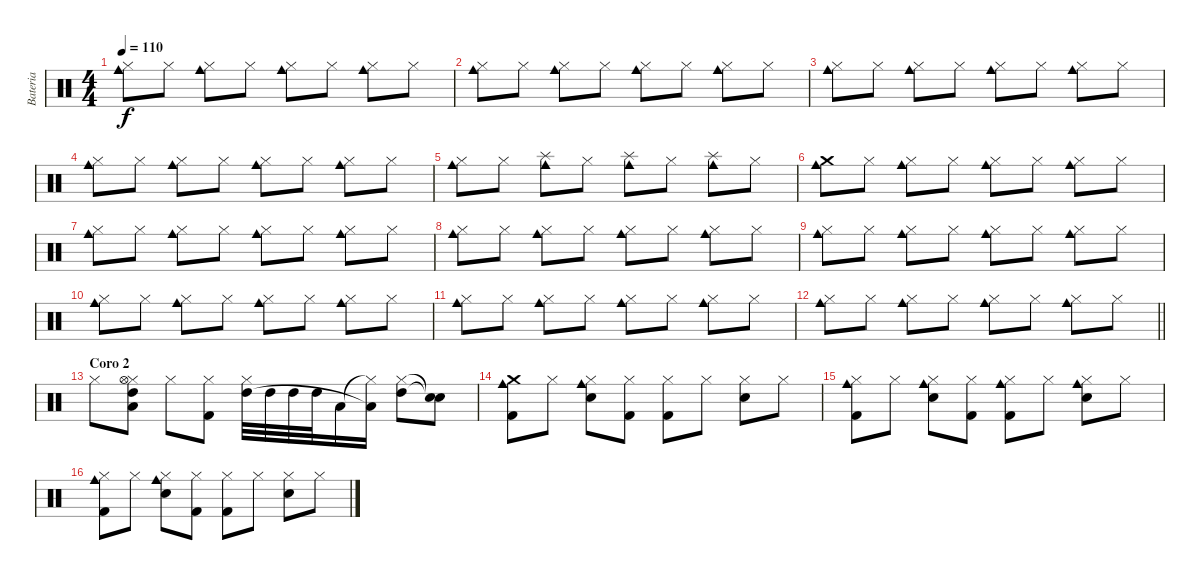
\track ("Bateria" "Bateria") {instrument percussion}
\staff {score}
\articulation defaults
\ts (4 4)
\tempo 110
\clef neutral
\ks c
("Hi-Hat (closed)" "Cowbell medium (hit)").8{dy f} "Hi-Hat (closed)".8 ("Hi-Hat (closed)" "Cowbell medium (hit)").8 "Hi-Hat (closed)".8 ("Hi-Hat (closed)" "Cowbell medium (hit)").8 "Hi-Hat (closed)".8 ("Hi-Hat (closed)" "Cowbell medium (hit)").8 "Hi-Hat (closed)".8 |
("Hi-Hat (closed)" "Cowbell medium (hit)").8 "Hi-Hat (closed)".8 ("Hi-Hat (closed)" "Cowbell medium (hit)").8 "Hi-Hat (closed)".8 ("Hi-Hat (closed)" "Cowbell medium (hit)").8 "Hi-Hat (closed)".8 ("Hi-Hat (closed)" "Cowbell medium (hit)").8 "Hi-Hat (closed)".8 |
("Hi-Hat (closed)" "Cowbell medium (hit)").8 "Hi-Hat (closed)".8 ("Hi-Hat (closed)" "Cowbell medium (hit)").8 "Hi-Hat (closed)".8 ("Hi-Hat (closed)" "Cowbell medium (hit)").8 "Hi-Hat (closed)".8 ("Hi-Hat (closed)" "Cowbell medium (hit)").8 "Hi-Hat (closed)".8 |
("Hi-Hat (closed)" "Cowbell medium (hit)").8 "Hi-Hat (closed)".8 ("Hi-Hat (closed)" "Cowbell medium (hit)").8 "Hi-Hat (closed)".8 ("Hi-Hat (closed)" "Cowbell medium (hit)").8 "Hi-Hat (closed)".8 ("Hi-Hat (closed)" "Cowbell medium (hit)").8 "Hi-Hat (closed)".8 |
("Hi-Hat (closed)" "Cowbell medium (hit)").8 "Hi-Hat (closed)".8 ("Splash (hit)" "Cowbell medium (hit)").8 "Hi-Hat (closed)".8 ("Splash (hit)" "Cowbell medium (hit)").8 "Hi-Hat (closed)".8 ("Splash (hit)" "Cowbell medium (hit)").8 "Hi-Hat (closed)".8 |
("Crash medium (hit)" "Cowbell medium (hit)").8 "Hi-Hat (closed)".8 ("Hi-Hat (closed)" "Cowbell medium (hit)").8 "Hi-Hat (closed)".8 ("Hi-Hat (closed)" "Cowbell medium (hit)").8 "Hi-Hat (closed)".8 ("Hi-Hat (closed)" "Cowbell medium (hit)").8 "Hi-Hat (closed)".8 |
("Hi-Hat (closed)" "Cowbell medium (hit)").8 "Hi-Hat (closed)".8 ("Hi-Hat (closed)" "Cowbell medium (hit)").8 "Hi-Hat (closed)".8 ("Hi-Hat (closed)" "Cowbell medium (hit)").8 "Hi-Hat (closed)".8 ("Hi-Hat (closed)" "Cowbell medium (hit)").8 "Hi-Hat (closed)".8 |
("Hi-Hat (closed)" "Cowbell medium (hit)").8 "Hi-Hat (closed)".8 ("Hi-Hat (closed)" "Cowbell medium (hit)").8 "Hi-Hat (closed)".8 ("Hi-Hat (closed)" "Cowbell medium (hit)").8 "Hi-Hat (closed)".8 ("Hi-Hat (closed)" "Cowbell medium (hit)").8 "Hi-Hat (closed)".8 |
("Hi-Hat (closed)" "Cowbell medium (hit)").8 "Hi-Hat (closed)".8 ("Hi-Hat (closed)" "Cowbell medium (hit)").8 "Hi-Hat (closed)".8 ("Hi-Hat (closed)" "Cowbell medium (hit)").8 "Hi-Hat (closed)".8 ("Hi-Hat (closed)" "Cowbell medium (hit)").8 "Hi-Hat (closed)".8 |
("Hi-Hat (closed)" "Cowbell medium (hit)").8 "Hi-Hat (closed)".8 ("Hi-Hat (closed)" "Cowbell medium (hit)").8 "Hi-Hat (closed)".8 ("Hi-Hat (closed)" "Cowbell medium (hit)").8 "Hi-Hat (closed)".8 ("Hi-Hat (closed)" "Cowbell medium (hit)").8 "Hi-Hat (closed)".8 |
("Hi-Hat (closed)" "Cowbell medium (hit)").8 "Hi-Hat (closed)".8 ("Hi-Hat (closed)" "Cowbell medium (hit)").8 "Hi-Hat (closed)".8 ("Hi-Hat (closed)" "Cowbell medium (hit)").8 "Hi-Hat (closed)".8 ("Hi-Hat (closed)" "Cowbell medium (hit)").8 "Hi-Hat (closed)".8 |
\barLineRight lightlight
("Hi-Hat (closed)" "Cowbell medium (hit)").8 "Hi-Hat (closed)".8 ("Hi-Hat (closed)" "Cowbell medium (hit)").8 "Hi-Hat (closed)".8 ("Hi-Hat (closed)" "Cowbell medium (hit)").8 "Hi-Hat (closed)".8 ("Hi-Hat (closed)" "Cowbell medium (hit)").8 "Hi-Hat (closed)".8 |
\section ("" "Coro 2")
"Hi-Hat (closed)".8 ("Hi-Hat (closed)" "High Tom (hit)" "Low Tom (hit)" "Hi-Hat (open)").8 "Hi-Hat (closed)".8 ("Hi-Hat (closed)" "Kick (hit) 2").8 ("Hi-Hat (closed)" "High Tom (hit)").32 "High Tom (hit)".32 "High Tom (hit)".32 "High Tom (hit)".32 "Low Tom (hit)".16 ("Hi-Hat (closed)"{t} "Low Tom (hit)"{t}).16 ("Hi-Hat (closed)" "High Tom (hit)").8 ("Snare (hit)"{t} "Snare (hit)"{t}).8 |
("Crash medium (hit)" "Cowbell medium (hit)" "Kick (hit) 2").8 "Hi-Hat (closed)".8 ("Hi-Hat (closed)" "Electric Snare (hit)" "Cowbell medium (hit)").8 ("Hi-Hat (closed)" "Kick (hit) 2").8 ("Hi-Hat (closed)" "Kick (hit) 2").8 "Hi-Hat (closed)".8 ("Hi-Hat (closed)" "Electric Snare (hit)").8 "Hi-Hat (closed)".8 |
("Hi-Hat (closed)" "Cowbell medium (hit)" "Kick (hit) 2").8 "Hi-Hat (closed)".8 ("Hi-Hat (closed)" "Electric Snare (hit)" "Cowbell medium (hit)").8 ("Hi-Hat (closed)" "Kick (hit) 2").8 ("Hi-Hat (closed)" "Cowbell medium (hit)" "Kick (hit) 2").8 "Hi-Hat (closed)".8 ("Hi-Hat (closed)" "Electric Snare (hit)" "Cowbell medium (hit)").8 "Hi-Hat (closed)".8 |
("Hi-Hat (closed)" "Cowbell medium (hit)" "Kick (hit) 2").8 "Hi-Hat (closed)".8 ("Hi-Hat (closed)" "Electric Snare (hit)" "Cowbell medium (hit)").8 ("Hi-Hat (closed)" "Kick (hit) 2").8 ("Hi-Hat (closed)" "Kick (hit) 2").8 "Hi-Hat (closed)".8 ("Hi-Hat (closed)" "Electric Snare (hit)").8 "Hi-Hat (closed)".8
